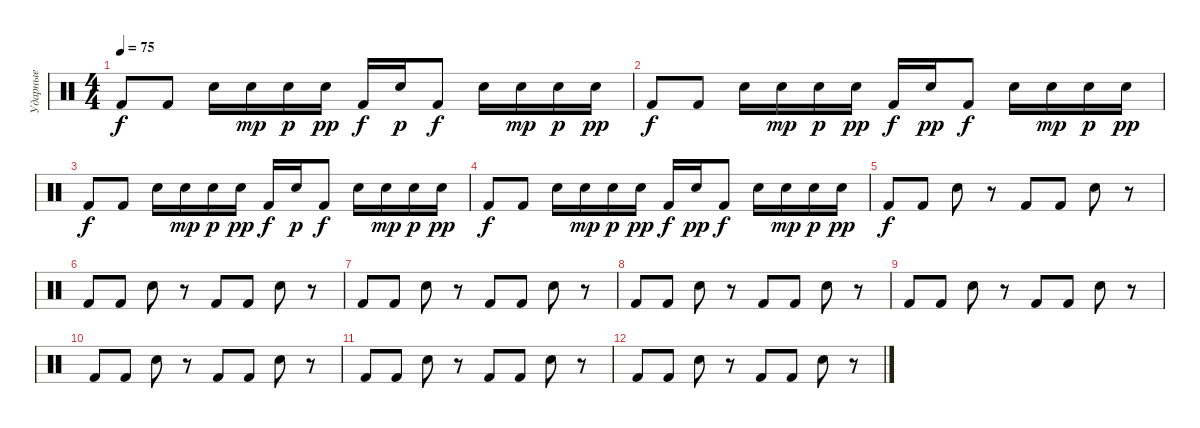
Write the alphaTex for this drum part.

\track ("Ударные" "Ударные") {instrument percussion}
\staff {score}
\articulation defaults
\ts (4 4)
\tempo 75
\clef neutral
\ks c "Kick (hit) 2".8{dy f} "Kick (hit) 2".8 "Snare (hit) 2".16 "Snare (hit) 2".16{dy mp} "Snare (hit) 2".16{dy p} "Snare (hit) 2".16{dy pp} "Kick (hit) 2".16{dy f} "Snare (hit) 2".16{dy p} "Kick (hit) 2".8{dy f} "Snare (hit) 2".16 "Snare (hit) 2".16{dy mp} "Snare (hit) 2".16{dy p} "Snare (hit) 2".16{dy pp}
|
"Kick (hit) 2".8{dy f} "Kick (hit) 2".8 "Snare (hit) 2".16 "Snare (hit) 2".16{dy mp} "Snare (hit) 2".16{dy p} "Snare (hit) 2".16{dy pp} "Kick (hit) 2".16{dy f} "Snare (hit) 2".16{dy pp} "Kick (hit) 2".8{dy f} "Snare (hit) 2".16 "Snare (hit) 2".16{dy mp} "Snare (hit) 2".16{dy p} "Snare (hit) 2".16{dy pp} |
"Kick (hit) 2".8{dy f} "Kick (hit) 2".8 "Snare (hit) 2".16 "Snare (hit) 2".16{dy mp} "Snare (hit) 2".16{dy p} "Snare (hit) 2".16{dy pp} "Kick (hit) 2".16{dy f} "Snare (hit) 2".16{dy p} "Kick (hit) 2".8{dy f} "Snare (hit) 2".16 "Snare (hit) 2".16{dy mp} "Snare (hit) 2".16{dy p} "Snare (hit) 2".16{dy pp} |
"Kick (hit) 2".8{dy f} "Kick (hit) 2".8 "Snare (hit) 2".16 "Snare (hit) 2".16{dy mp} "Snare (hit) 2".16{dy p} "Snare (hit) 2".16{dy pp} "Kick (hit) 2".16{dy f} "Snare (hit) 2".16{dy pp} "Kick (hit) 2".8{dy f} "Snare (hit) 2".16 "Snare (hit) 2".16{dy mp} "Snare (hit) 2".16{dy p} "Snare (hit) 2".16{dy pp} |
"Kick (hit) 2".8{dy f} "Kick (hit) 2".8 "Snare (hit) 2".8 r.8 "Kick (hit) 2".8 "Kick (hit) 2".8 "Snare (hit) 2".8 r.8 |
"Kick (hit) 2".8 "Kick (hit) 2".8 "Snare (hit) 2".8 r.8 "Kick (hit) 2".8 "Kick (hit) 2".8 "Snare (hit) 2".8 r.8 |
"Kick (hit) 2".8 "Kick (hit) 2".8 "Snare (hit) 2".8 r.8 "Kick (hit) 2".8 "Kick (hit) 2".8 "Snare (hit) 2".8 r.8 |
"Kick (hit) 2".8 "Kick (hit) 2".8 "Snare (hit) 2".8 r.8 "Kick (hit) 2".8 "Kick (hit) 2".8 "Snare (hit) 2".8 r.8 |
"Kick (hit) 2".8 "Kick (hit) 2".8 "Snare (hit) 2".8 r.8 "Kick (hit) 2".8 "Kick (hit) 2".8 "Snare (hit) 2".8 r.8 |
"Kick (hit) 2".8 "Kick (hit) 2".8 "Snare (hit) 2".8 r.8 "Kick (hit) 2".8 "Kick (hit) 2".8 "Snare (hit) 2".8 r.8 |
"Kick (hit) 2".8 "Kick (hit) 2".8 "Snare (hit) 2".8 r.8 "Kick (hit) 2".8 "Kick (hit) 2".8 "Snare (hit) 2".8 r.8 |
"Kick (hit) 2".8 "Kick (hit) 2".8 "Snare (hit) 2".8 r.8 "Kick (hit) 2".8 "Kick (hit) 2".8 "Snare (hit) 2".8 r.8
